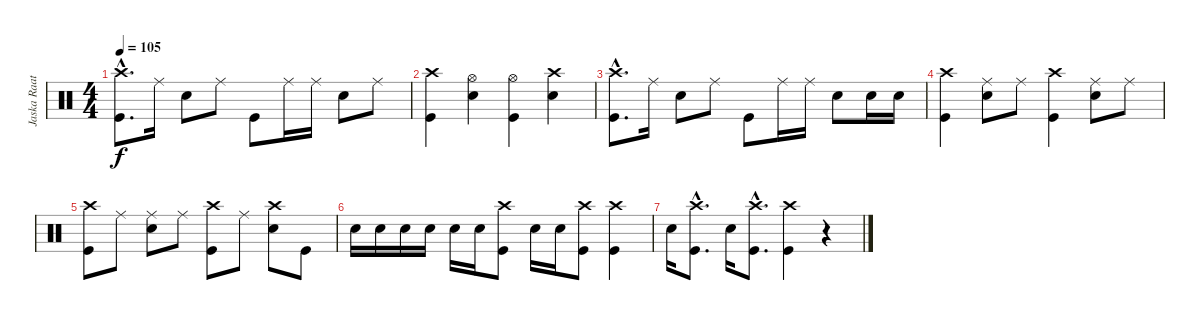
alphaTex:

\track ("Jaska Raatikainen" "Jaska Raat") {instrument percussion}
\staff {score}
\articulation defaults
\ts (4 4)
\tempo 105
\clef neutral
\ks c
("Crash high (hit)"{hac} "Kick (hit)"{hac}).8{d dy f} "Ride (middle)".16 "Snare (hit) 2".8 "Ride (middle)".8 "Kick (hit)".8 "Ride (middle)".16 "Ride (middle)".16 "Snare (hit) 2".8 "Ride (middle)".8 |
("Crash high (hit)" "Kick (hit)").4 ("Hi-Hat (open)" "Snare (hit) 2").4 ("Hi-Hat (open)" "Kick (hit)").4 ("Crash high (hit)" "Snare (hit) 2").4 |
("Crash high (hit)"{hac} "Kick (hit)"{hac}).8{d} "Ride (middle)".16 "Snare (hit) 2".8 "Ride (middle)".8 "Kick (hit)".8 "Ride (middle)".16 "Ride (middle)".16 "Snare (hit) 2".8 "Snare (hit) 2".16 "Snare (hit) 2".16 |
("Crash high (hit)" "Kick (hit)").4 ("Ride (middle)" "Snare (hit) 2").8 "Ride (middle)".8 ("Crash high (hit)" "Kick (hit)").4 ("Ride (middle)" "Snare (hit) 2").8 "Ride (middle)".8 |
("Crash high (hit)" "Kick (hit)").8 "Ride (middle)".8 ("Ride (middle)" "Snare (hit) 2").8 "Ride (middle)".8 ("Crash high (hit)" "Kick (hit)").8 "Ride (middle)".8 ("Crash high (hit)" "Snare (hit) 2").8 "Kick (hit)".8 |
"Snare (hit) 2".16 "Snare (hit) 2".16 "Snare (hit) 2".16 "Snare (hit) 2".16 "Snare (hit) 2".16 "Snare (hit) 2".16 ("Crash high (hit)" "Kick (hit)").8 "Snare (hit) 2".16 "Snare (hit) 2".16 ("Crash high (hit)" "Kick (hit)").8 ("Crash high (hit)" "Kick (hit)").4 |
"Snare (hit) 2".16 ("Crash high (hit)"{hac} "Kick (hit)"{hac}).8{d} "Snare (hit) 2".16 ("Crash high (hit)"{hac} "Kick (hit)"{hac}).8{d} ("Crash high (hit)" "Kick (hit)").4 r.4
